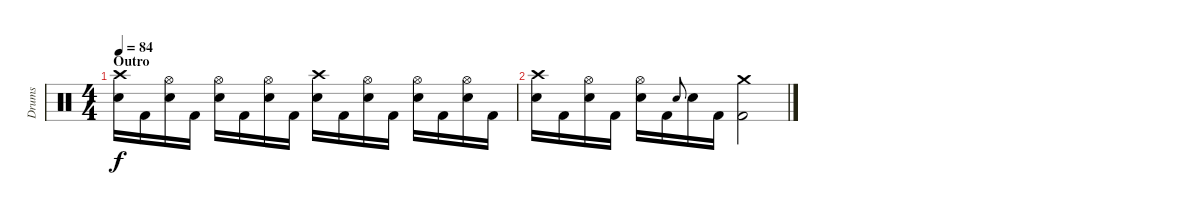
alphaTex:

\track ("Drums" "Drums") {instrument percussion}
\staff {score}
\articulation defaults
\ts (4 4)
\section ("" "Outro")
\tempo 84
\clef neutral
\ks c
("Crash high (hit)" "Snare (hit) 2").16{dy f} "Kick (hit) 2".16 ("Hi-Hat (open)" "Snare (hit) 2").16 "Kick (hit) 2".16 ("Hi-Hat (open)" "Snare (hit) 2").16 "Kick (hit) 2".16 ("Hi-Hat (open)" "Snare (hit) 2").16 "Kick (hit) 2".16 ("Crash high (hit)" "Snare (hit) 2").16 "Kick (hit) 2".16 ("Hi-Hat (open)" "Snare (hit) 2").16 "Kick (hit) 2".16 ("Hi-Hat (open)" "Snare (hit) 2").16 "Kick (hit) 2".16 ("Hi-Hat (open)" "Snare (hit) 2").16 "Kick (hit) 2".16 |
("Crash high (hit)" "Snare (hit) 2").16 "Kick (hit) 2".16 ("Hi-Hat (open)" "Snare (hit) 2").16 "Kick (hit) 2".16 ("Hi-Hat (open)" "Snare (hit) 2").16 "Kick (hit) 2".16 "Snare (hit) 2".8{gr onbeat} "Snare (hit) 2".16 "Kick (hit) 2".16 ("Crash medium (hit)" "Kick (hit) 2").2
